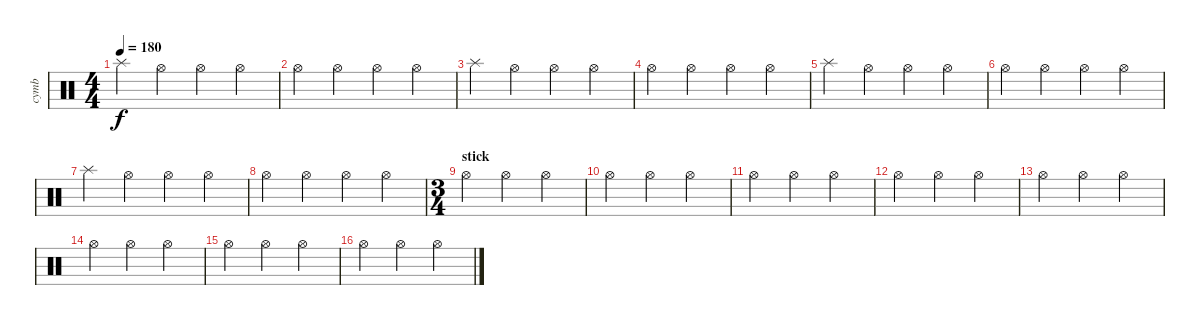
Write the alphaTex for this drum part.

\track ("cymb" "cymb") {instrument percussion}
\staff {score}
\articulation defaults
\ts (4 4)
\tempo 180
\clef neutral
\ks c "Splash (hit)".4{dy f} "Hi-Hat (open)".4 "Hi-Hat (open)".4 "Hi-Hat (open)".4
|
"Hi-Hat (open)".4 "Hi-Hat (open)".4 "Hi-Hat (open)".4 "Hi-Hat (open)".4 |
"Splash (hit)".4 "Hi-Hat (open)".4 "Hi-Hat (open)".4 "Hi-Hat (open)".4 |
"Hi-Hat (open)".4 "Hi-Hat (open)".4 "Hi-Hat (open)".4 "Hi-Hat (open)".4 |
"Splash (hit)".4 "Hi-Hat (open)".4 "Hi-Hat (open)".4 "Hi-Hat (open)".4 |
"Hi-Hat (open)".4 "Hi-Hat (open)".4 "Hi-Hat (open)".4 "Hi-Hat (open)".4 |
"Splash (hit)".4 "Hi-Hat (open)".4 "Hi-Hat (open)".4 "Hi-Hat (open)".4 |
"Hi-Hat (open)".4 "Hi-Hat (open)".4 "Hi-Hat (open)".4 "Hi-Hat (open)".4 |
\ts (3 4)
\section ("" "stick")
"Hi-Hat (open)".4 "Hi-Hat (open)".4 "Hi-Hat (open)".4 |
"Hi-Hat (open)".4 "Hi-Hat (open)".4 "Hi-Hat (open)".4 |
"Hi-Hat (open)".4 "Hi-Hat (open)".4 "Hi-Hat (open)".4 |
"Hi-Hat (open)".4 "Hi-Hat (open)".4 "Hi-Hat (open)".4 |
"Hi-Hat (open)".4 "Hi-Hat (open)".4 "Hi-Hat (open)".4 |
"Hi-Hat (open)".4 "Hi-Hat (open)".4 "Hi-Hat (open)".4 |
"Hi-Hat (open)".4 "Hi-Hat (open)".4 "Hi-Hat (open)".4 |
"Hi-Hat (open)".4 "Hi-Hat (open)".4 "Hi-Hat (open)".4
